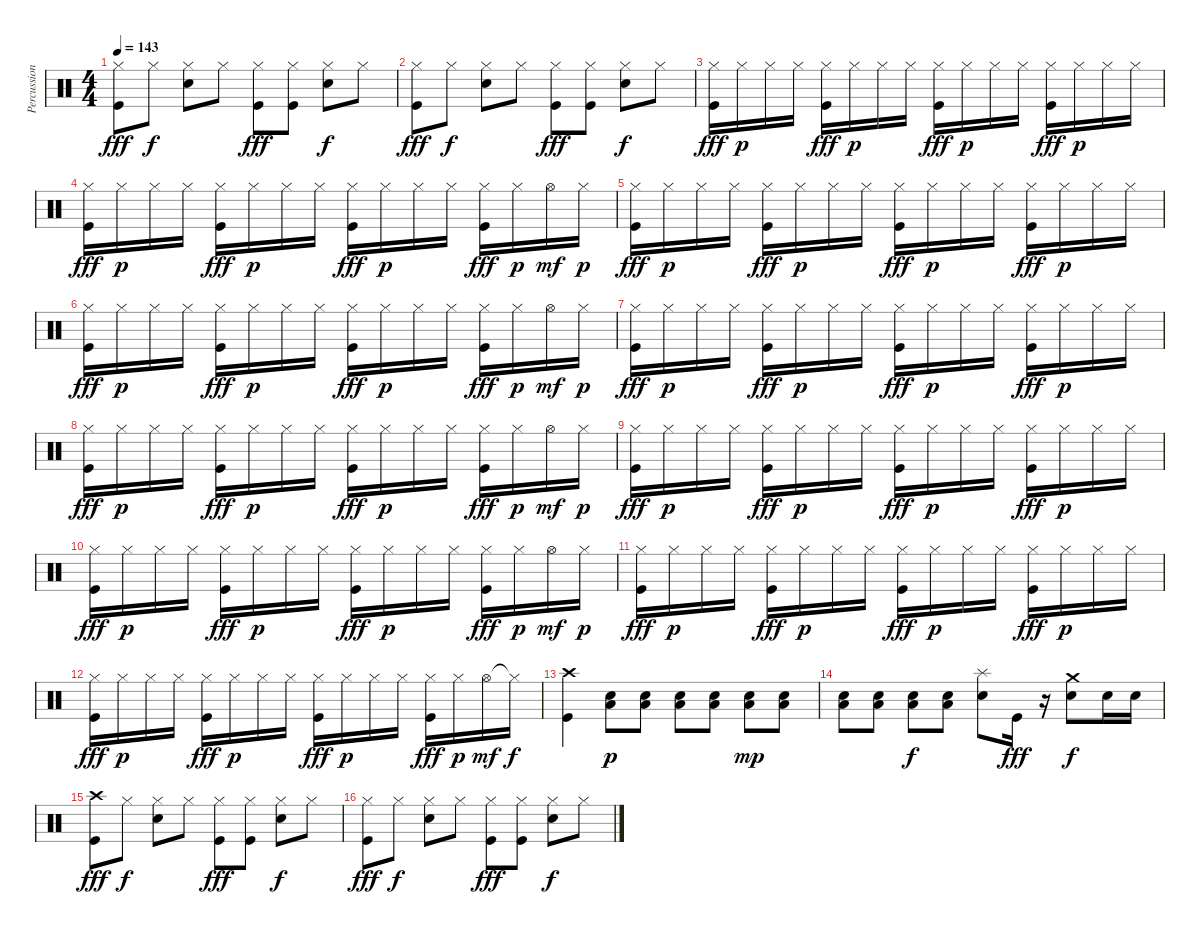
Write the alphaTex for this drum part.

\track ("Percussion" "Percussion") {instrument percussion}
\staff {score}
\articulation defaults
\ts (4 4)
\tempo 143
\clef neutral
\ks c
("Kick (hit)" "Hi-Hat (closed)").8{dy fff} "Hi-Hat (closed)".8{dy f} ("Electric Snare (hit)" "Hi-Hat (closed)").8 "Hi-Hat (closed)".8 ("Kick (hit)" "Hi-Hat (closed)").8{dy fff} ("Kick (hit)" "Hi-Hat (closed)").8 ("Electric Snare (hit)" "Hi-Hat (closed)").8{dy f} "Hi-Hat (closed)".8 |
("Kick (hit)" "Hi-Hat (closed)").8{dy fff} "Hi-Hat (closed)".8{dy f} ("Electric Snare (hit)" "Hi-Hat (closed)").8 "Hi-Hat (closed)".8 ("Kick (hit)" "Hi-Hat (closed)").8{dy fff} ("Kick (hit)" "Hi-Hat (closed)").8 ("Electric Snare (hit)" "Hi-Hat (closed)").8{dy f} "Hi-Hat (closed)".8 |
("Kick (hit)" "Hi-Hat (closed)").16{dy fff} "Hi-Hat (closed)".16{dy p} "Hi-Hat (closed)".16 "Hi-Hat (closed)".16 ("Kick (hit)" "Hi-Hat (closed)").16{dy fff} "Hi-Hat (closed)".16{dy p} "Hi-Hat (closed)".16 "Hi-Hat (closed)".16 ("Kick (hit)" "Hi-Hat (closed)").16{dy fff} "Hi-Hat (closed)".16{dy p} "Hi-Hat (closed)".16 "Hi-Hat (closed)".16 ("Kick (hit)" "Hi-Hat (closed)").16{dy fff} "Hi-Hat (closed)".16{dy p} "Hi-Hat (closed)".16 "Hi-Hat (closed)".16 |
("Kick (hit)" "Hi-Hat (closed)").16{dy fff} "Hi-Hat (closed)".16{dy p} "Hi-Hat (closed)".16 "Hi-Hat (closed)".16 ("Kick (hit)" "Hi-Hat (closed)").16{dy fff} "Hi-Hat (closed)".16{dy p} "Hi-Hat (closed)".16 "Hi-Hat (closed)".16 ("Kick (hit)" "Hi-Hat (closed)").16{dy fff} "Hi-Hat (closed)".16{dy p} "Hi-Hat (closed)".16 "Hi-Hat (closed)".16 ("Kick (hit)" "Hi-Hat (closed)").16{dy fff} "Hi-Hat (closed)".16{dy p} "Hi-Hat (open)".16{dy mf} "Hi-Hat (closed)".16{dy p} |
("Kick (hit)" "Hi-Hat (closed)").16{dy fff} "Hi-Hat (closed)".16{dy p} "Hi-Hat (closed)".16 "Hi-Hat (closed)".16 ("Kick (hit)" "Hi-Hat (closed)").16{dy fff} "Hi-Hat (closed)".16{dy p} "Hi-Hat (closed)".16 "Hi-Hat (closed)".16 ("Kick (hit)" "Hi-Hat (closed)").16{dy fff} "Hi-Hat (closed)".16{dy p} "Hi-Hat (closed)".16 "Hi-Hat (closed)".16 ("Kick (hit)" "Hi-Hat (closed)").16{dy fff} "Hi-Hat (closed)".16{dy p} "Hi-Hat (closed)".16 "Hi-Hat (closed)".16 |
("Kick (hit)" "Hi-Hat (closed)").16{dy fff} "Hi-Hat (closed)".16{dy p} "Hi-Hat (closed)".16 "Hi-Hat (closed)".16 ("Kick (hit)" "Hi-Hat (closed)").16{dy fff} "Hi-Hat (closed)".16{dy p} "Hi-Hat (closed)".16 "Hi-Hat (closed)".16 ("Kick (hit)" "Hi-Hat (closed)").16{dy fff} "Hi-Hat (closed)".16{dy p} "Hi-Hat (closed)".16 "Hi-Hat (closed)".16 ("Kick (hit)" "Hi-Hat (closed)").16{dy fff} "Hi-Hat (closed)".16{dy p} "Hi-Hat (open)".16{dy mf} "Hi-Hat (closed)".16{dy p} |
("Kick (hit)" "Hi-Hat (closed)").16{dy fff} "Hi-Hat (closed)".16{dy p} "Hi-Hat (closed)".16 "Hi-Hat (closed)".16 ("Kick (hit)" "Hi-Hat (closed)").16{dy fff} "Hi-Hat (closed)".16{dy p} "Hi-Hat (closed)".16 "Hi-Hat (closed)".16 ("Kick (hit)" "Hi-Hat (closed)").16{dy fff} "Hi-Hat (closed)".16{dy p} "Hi-Hat (closed)".16 "Hi-Hat (closed)".16 ("Kick (hit)" "Hi-Hat (closed)").16{dy fff} "Hi-Hat (closed)".16{dy p} "Hi-Hat (closed)".16 "Hi-Hat (closed)".16 |
("Kick (hit)" "Hi-Hat (closed)").16{dy fff} "Hi-Hat (closed)".16{dy p} "Hi-Hat (closed)".16 "Hi-Hat (closed)".16 ("Kick (hit)" "Hi-Hat (closed)").16{dy fff} "Hi-Hat (closed)".16{dy p} "Hi-Hat (closed)".16 "Hi-Hat (closed)".16 ("Kick (hit)" "Hi-Hat (closed)").16{dy fff} "Hi-Hat (closed)".16{dy p} "Hi-Hat (closed)".16 "Hi-Hat (closed)".16 ("Kick (hit)" "Hi-Hat (closed)").16{dy fff} "Hi-Hat (closed)".16{dy p} "Hi-Hat (open)".16{dy mf} "Hi-Hat (closed)".16{dy p} |
("Kick (hit)" "Hi-Hat (closed)").16{dy fff} "Hi-Hat (closed)".16{dy p} "Hi-Hat (closed)".16 "Hi-Hat (closed)".16 ("Kick (hit)" "Hi-Hat (closed)").16{dy fff} "Hi-Hat (closed)".16{dy p} "Hi-Hat (closed)".16 "Hi-Hat (closed)".16 ("Kick (hit)" "Hi-Hat (closed)").16{dy fff} "Hi-Hat (closed)".16{dy p} "Hi-Hat (closed)".16 "Hi-Hat (closed)".16 ("Kick (hit)" "Hi-Hat (closed)").16{dy fff} "Hi-Hat (closed)".16{dy p} "Hi-Hat (closed)".16 "Hi-Hat (closed)".16 |
("Kick (hit)" "Hi-Hat (closed)").16{dy fff} "Hi-Hat (closed)".16{dy p} "Hi-Hat (closed)".16 "Hi-Hat (closed)".16 ("Kick (hit)" "Hi-Hat (closed)").16{dy fff} "Hi-Hat (closed)".16{dy p} "Hi-Hat (closed)".16 "Hi-Hat (closed)".16 ("Kick (hit)" "Hi-Hat (closed)").16{dy fff} "Hi-Hat (closed)".16{dy p} "Hi-Hat (closed)".16 "Hi-Hat (closed)".16 ("Kick (hit)" "Hi-Hat (closed)").16{dy fff} "Hi-Hat (closed)".16{dy p} "Hi-Hat (open)".16{dy mf} "Hi-Hat (closed)".16{dy p} |
("Kick (hit)" "Hi-Hat (closed)").16{dy fff} "Hi-Hat (closed)".16{dy p} "Hi-Hat (closed)".16 "Hi-Hat (closed)".16 ("Kick (hit)" "Hi-Hat (closed)").16{dy fff} "Hi-Hat (closed)".16{dy p} "Hi-Hat (closed)".16 "Hi-Hat (closed)".16 ("Kick (hit)" "Hi-Hat (closed)").16{dy fff} "Hi-Hat (closed)".16{dy p} "Hi-Hat (closed)".16 "Hi-Hat (closed)".16 ("Kick (hit)" "Hi-Hat (closed)").16{dy fff} "Hi-Hat (closed)".16{dy p} "Hi-Hat (closed)".16 "Hi-Hat (closed)".16 |
("Kick (hit)" "Hi-Hat (closed)").16{dy fff} "Hi-Hat (closed)".16{dy p} "Hi-Hat (closed)".16 "Hi-Hat (closed)".16 ("Kick (hit)" "Hi-Hat (closed)").16{dy fff} "Hi-Hat (closed)".16{dy p} "Hi-Hat (closed)".16 "Hi-Hat (closed)".16 ("Kick (hit)" "Hi-Hat (closed)").16{dy fff} "Hi-Hat (closed)".16{dy p} "Hi-Hat (closed)".16 "Hi-Hat (closed)".16 ("Kick (hit)" "Hi-Hat (closed)").16{dy fff} "Hi-Hat (closed)".16{dy p} "Hi-Hat (open)".16{dy mf} "Hi-Hat (closed)"{t}.16{dy f} |
("Crash high (hit)" "Kick (hit)").4 ("Electric Snare (hit)" "Low Floor Tom (hit)").8{dy p} ("Electric Snare (hit)" "Low Floor Tom (hit)").8 ("Electric Snare (hit)" "Low Floor Tom (hit)").8 ("Electric Snare (hit)" "Low Floor Tom (hit)").8 ("Electric Snare (hit)" "Low Floor Tom (hit)").8{dy mp} ("Electric Snare (hit)" "Low Floor Tom (hit)").8 |
("Electric Snare (hit)" "Low Floor Tom (hit)").8 ("Electric Snare (hit)" "Low Floor Tom (hit)").8 ("Electric Snare (hit)" "Low Floor Tom (hit)").8{dy f} ("Electric Snare (hit)" "Low Floor Tom (hit)").8 ("Splash (hit)" "Electric Snare (hit)").8 "Kick (hit)".16{dy fff} r.16 ("Crash medium (hit)" "Electric Snare (hit)").8{dy f} "Electric Snare (hit)".16 "Electric Snare (hit)".16 |
("Crash high (hit)" "Kick (hit)").8{dy fff} "Hi-Hat (closed)".8{dy f} ("Electric Snare (hit)" "Hi-Hat (closed)").8 "Hi-Hat (closed)".8 ("Kick (hit)" "Hi-Hat (closed)").8{dy fff} ("Kick (hit)" "Hi-Hat (closed)").8 ("Electric Snare (hit)" "Hi-Hat (closed)").8{dy f} "Hi-Hat (closed)".8 |
("Kick (hit)" "Hi-Hat (closed)").8{dy fff} "Hi-Hat (closed)".8{dy f} ("Electric Snare (hit)" "Hi-Hat (closed)").8 "Hi-Hat (closed)".8 ("Kick (hit)" "Hi-Hat (closed)").8{dy fff} ("Kick (hit)" "Hi-Hat (closed)").8 ("Electric Snare (hit)" "Hi-Hat (closed)").8{dy f} "Hi-Hat (closed)".8
